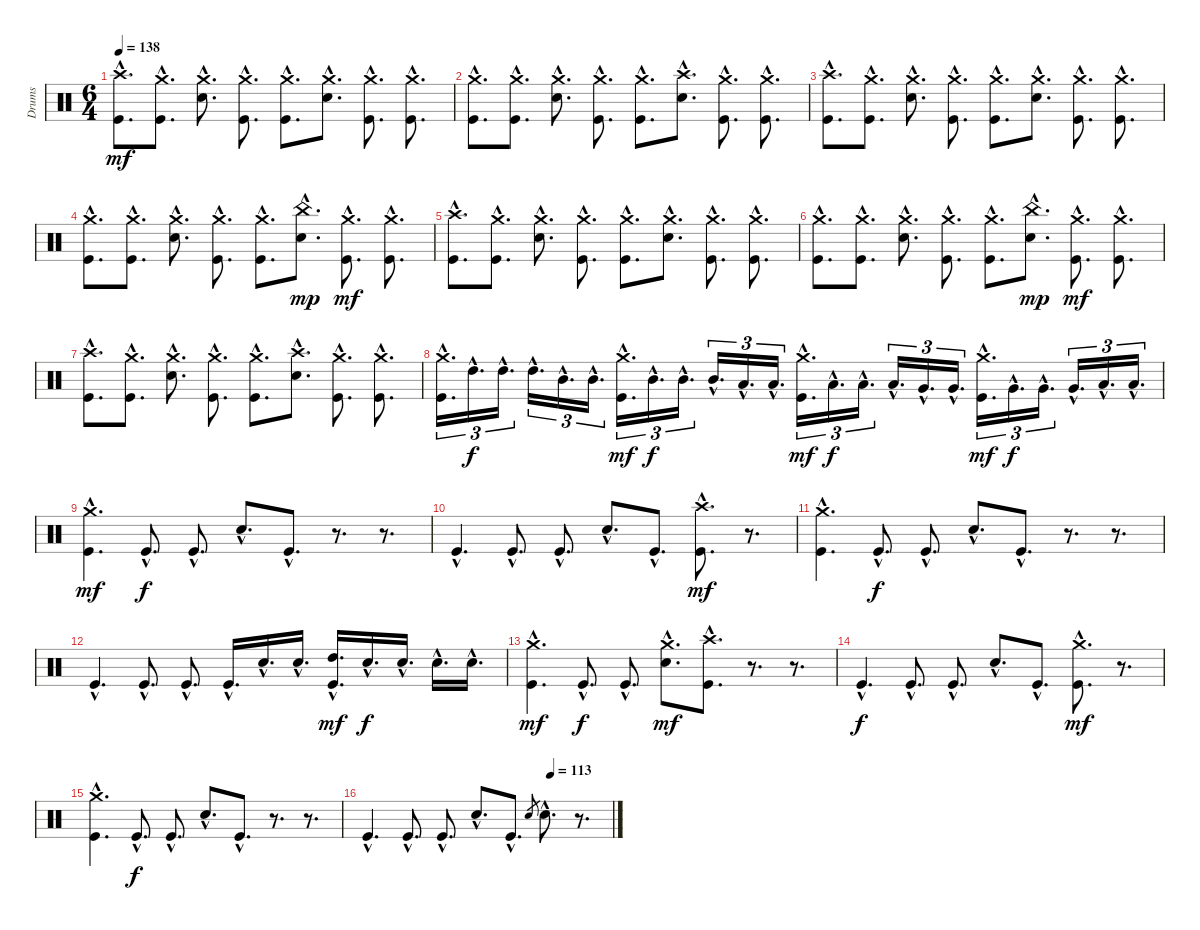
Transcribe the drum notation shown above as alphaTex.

\track ("Drums" "Drums") {instrument percussion}
\staff {score}
\articulation defaults
\ts (6 4)
\section ("" "")
\tempo 138
\clef neutral
\ks c
("Crash high (hit)"{hac} "Kick (hit)"{hac}).8{d dy mf} ("Crash medium (hit)"{hac} "Kick (hit)"{hac}).8{d} ("Crash medium (hit)"{hac} "Electric Snare (hit)"{hac}).8{d} ("Crash medium (hit)"{hac} "Kick (hit)"{hac}).8{d} ("Crash medium (hit)"{hac} "Kick (hit)"{hac}).8{d} ("Crash medium (hit)"{hac} "Electric Snare (hit)"{hac}).8{d} ("Crash medium (hit)"{hac} "Kick (hit)"{hac}).8{d} ("Crash medium (hit)"{hac} "Kick (hit)"{hac}).8{d} |
("Crash medium (hit)"{hac} "Kick (hit)"{hac}).8{d} ("Crash medium (hit)"{hac} "Kick (hit)"{hac}).8{d} ("Crash medium (hit)"{hac} "Electric Snare (hit)"{hac}).8{d} ("Crash medium (hit)"{hac} "Kick (hit)"{hac}).8{d} ("Crash medium (hit)"{hac} "Kick (hit)"{hac}).8{d} ("Crash high (hit)"{hac} "Electric Snare (hit)"{hac}).8{d} ("Crash medium (hit)"{hac} "Kick (hit)"{hac}).8{d} ("Crash medium (hit)"{hac} "Kick (hit)"{hac}).8{d} |
("Crash high (hit)"{hac} "Kick (hit)"{hac}).8{d} ("Crash medium (hit)"{hac} "Kick (hit)"{hac}).8{d} ("Crash medium (hit)"{hac} "Electric Snare (hit)"{hac}).8{d} ("Crash medium (hit)"{hac} "Kick (hit)"{hac}).8{d} ("Crash medium (hit)"{hac} "Kick (hit)"{hac}).8{d} ("Crash medium (hit)"{hac} "Electric Snare (hit)"{hac}).8{d} ("Crash medium (hit)"{hac} "Kick (hit)"{hac}).8{d} ("Crash medium (hit)"{hac} "Kick (hit)"{hac}).8{d} |
("Crash medium (hit)"{hac} "Kick (hit)"{hac}).8{d} ("Crash medium (hit)"{hac} "Kick (hit)"{hac}).8{d} ("Crash medium (hit)"{hac} "Electric Snare (hit)"{hac}).8{d} ("Crash medium (hit)"{hac} "Kick (hit)"{hac}).8{d} ("Crash medium (hit)"{hac} "Kick (hit)"{hac}).8{d} ("China (hit)"{hac} "Electric Snare (hit)"{hac}).8{d dy mp} ("Crash medium (hit)"{hac} "Kick (hit)"{hac}).8{d dy mf} ("Crash medium (hit)"{hac} "Kick (hit)"{hac}).8{d} |
("Crash high (hit)"{hac} "Kick (hit)"{hac}).8{d} ("Crash medium (hit)"{hac} "Kick (hit)"{hac}).8{d} ("Crash medium (hit)"{hac} "Electric Snare (hit)"{hac}).8{d} ("Crash medium (hit)"{hac} "Kick (hit)"{hac}).8{d} ("Crash medium (hit)"{hac} "Kick (hit)"{hac}).8{d} ("Crash medium (hit)"{hac} "Electric Snare (hit)"{hac}).8{d} ("Crash medium (hit)"{hac} "Kick (hit)"{hac}).8{d} ("Crash medium (hit)"{hac} "Kick (hit)"{hac}).8{d} |
("Crash medium (hit)"{hac} "Kick (hit)"{hac}).8{d} ("Crash medium (hit)"{hac} "Kick (hit)"{hac}).8{d} ("Crash medium (hit)"{hac} "Electric Snare (hit)"{hac}).8{d} ("Crash medium (hit)"{hac} "Kick (hit)"{hac}).8{d} ("Crash medium (hit)"{hac} "Kick (hit)"{hac}).8{d} ("China (hit)"{hac} "Electric Snare (hit)"{hac}).8{d dy mp} ("Crash medium (hit)"{hac} "Kick (hit)"{hac}).8{d dy mf} ("Crash medium (hit)"{hac} "Kick (hit)"{hac}).8{d} |
("Crash high (hit)"{hac} "Kick (hit)"{hac}).8{d} ("Crash medium (hit)"{hac} "Kick (hit)"{hac}).8{d} ("Crash medium (hit)"{hac} "Electric Snare (hit)"{hac}).8{d} ("Crash medium (hit)"{hac} "Kick (hit)"{hac}).8{d} ("Crash medium (hit)"{hac} "Kick (hit)"{hac}).8{d} ("Crash high (hit)"{hac} "Electric Snare (hit)"{hac}).8{d} ("Crash medium (hit)"{hac} "Kick (hit)"{hac}).8{d} ("Crash medium (hit)"{hac} "Kick (hit)"{hac}).8{d} |
("Crash medium (hit)"{hac} "Kick (hit)"{hac}).16{d tu (3 2)} "High Tom (hit)"{hac}.16{d tu (3 2) dy f} "High Tom (hit)"{hac}.16{d tu (3 2)} "High Tom (hit)"{hac}.16{d tu (3 2)} "Mid Tom (hit)"{hac}.16{d tu (3 2)} "Mid Tom (hit)"{hac}.16{d tu (3 2)} ("Crash medium (hit)"{hac} "Kick (hit)"{hac}).16{d tu (3 2) dy mf} "Mid Tom (hit)"{hac}.16{d tu (3 2) dy f} "Mid Tom (hit)"{hac}.16{d tu (3 2)} "Mid Tom (hit)"{hac}.16{d tu (3 2)} "Low Tom (hit)"{hac}.16{d tu (3 2)} "Low Tom (hit)"{hac}.16{d tu (3 2)} ("Crash medium (hit)"{hac} "Kick (hit)"{hac}).16{d tu (3 2) dy mf} "Low Tom (hit)"{hac}.16{d tu (3 2) dy f} "Low Tom (hit)"{hac}.16{d tu (3 2)} "Low Tom (hit)"{hac}.16{d tu (3 2)} "Very Low Tom (hit)"{hac}.16{d tu (3 2)} "Very Low Tom (hit)"{hac}.16{d tu (3 2)} ("Crash medium (hit)"{hac} "Kick (hit)"{hac}).16{d tu (3 2) dy mf} "Very Low Tom (hit)"{hac}.16{d tu (3 2) dy f} "Very Low Tom (hit)"{hac}.16{d tu (3 2)} "Very Low Tom (hit)"{hac}.16{d tu (3 2)} "Low Floor Tom (hit)"{hac}.16{d tu (3 2)} "Low Floor Tom (hit)"{hac}.16{d tu (3 2)} |
\section ("" "")
("Crash medium (hit)"{hac} "Kick (hit)"{hac}).4{d dy mf} "Kick (hit)"{hac}.8{d dy f} "Kick (hit)"{hac}.8{d} "Electric Snare (hit)"{hac}.8{d} "Kick (hit)"{hac}.8{d} r.8{d} r.8{d} |
"Kick (hit)"{hac}.4{d} "Kick (hit)"{hac}.8{d} "Kick (hit)"{hac}.8{d} "Electric Snare (hit)"{hac}.8{d} "Kick (hit)"{hac}.8{d} ("Crash high (hit)"{hac} "Kick (hit)"{hac}).8{d dy mf} r.8{d} |
("Crash medium (hit)"{hac} "Kick (hit)"{hac}).4{d} "Kick (hit)"{hac}.8{d dy f} "Kick (hit)"{hac}.8{d} "Electric Snare (hit)"{hac}.8{d} "Kick (hit)"{hac}.8{d} r.8{d} r.8{d} |
"Kick (hit)"{hac}.4{d} "Kick (hit)"{hac}.8{d} "Kick (hit)"{hac}.8{d} "Kick (hit)"{hac}.16{d} "Electric Snare (hit)"{hac}.16{d} "Electric Snare (hit)"{hac}.16{d} ("High Tom (hit)"{hac} "Kick (hit)"{hac}).16{d dy mf} "Electric Snare (hit)"{hac}.16{d dy f} "Electric Snare (hit)"{hac}.16{d} "Electric Snare (hit)"{hac}.16{d} "Electric Snare (hit)"{hac}.16{d} |
("Crash medium (hit)"{hac} "Kick (hit)"{hac}).4{d dy mf} "Kick (hit)"{hac}.8{d dy f} "Kick (hit)"{hac}.8{d} ("Crash medium (hit)"{hac} "Electric Snare (hit)"{hac}).8{d dy mf} ("Crash high (hit)"{hac} "Kick (hit)"{hac}).8{d} r.8{d} r.8{d} |
"Kick (hit)"{hac}.4{d dy f} "Kick (hit)"{hac}.8{d} "Kick (hit)"{hac}.8{d} "Electric Snare (hit)"{hac}.8{d} "Kick (hit)"{hac}.8{d} ("Crash medium (hit)"{hac} "Kick (hit)"{hac}).8{d dy mf} r.8{d} |
("Crash medium (hit)"{hac} "Kick (hit)"{hac}).4{d} "Kick (hit)"{hac}.8{d dy f} "Kick (hit)"{hac}.8{d} "Electric Snare (hit)"{hac}.8{d} "Kick (hit)"{hac}.8{d} r.8{d} r.8{d} |
\tempo (113 0.75)
"Kick (hit)"{hac}.4{d} "Kick (hit)"{hac}.8{d} "Kick (hit)"{hac}.8{d} "Electric Snare (hit)"{hac}.8{d} "Kick (hit)"{hac}.8{d} "Electric Snare (hit)".8{gr} "Electric Snare (hit)"{hac}.8{d} r.8{d}
